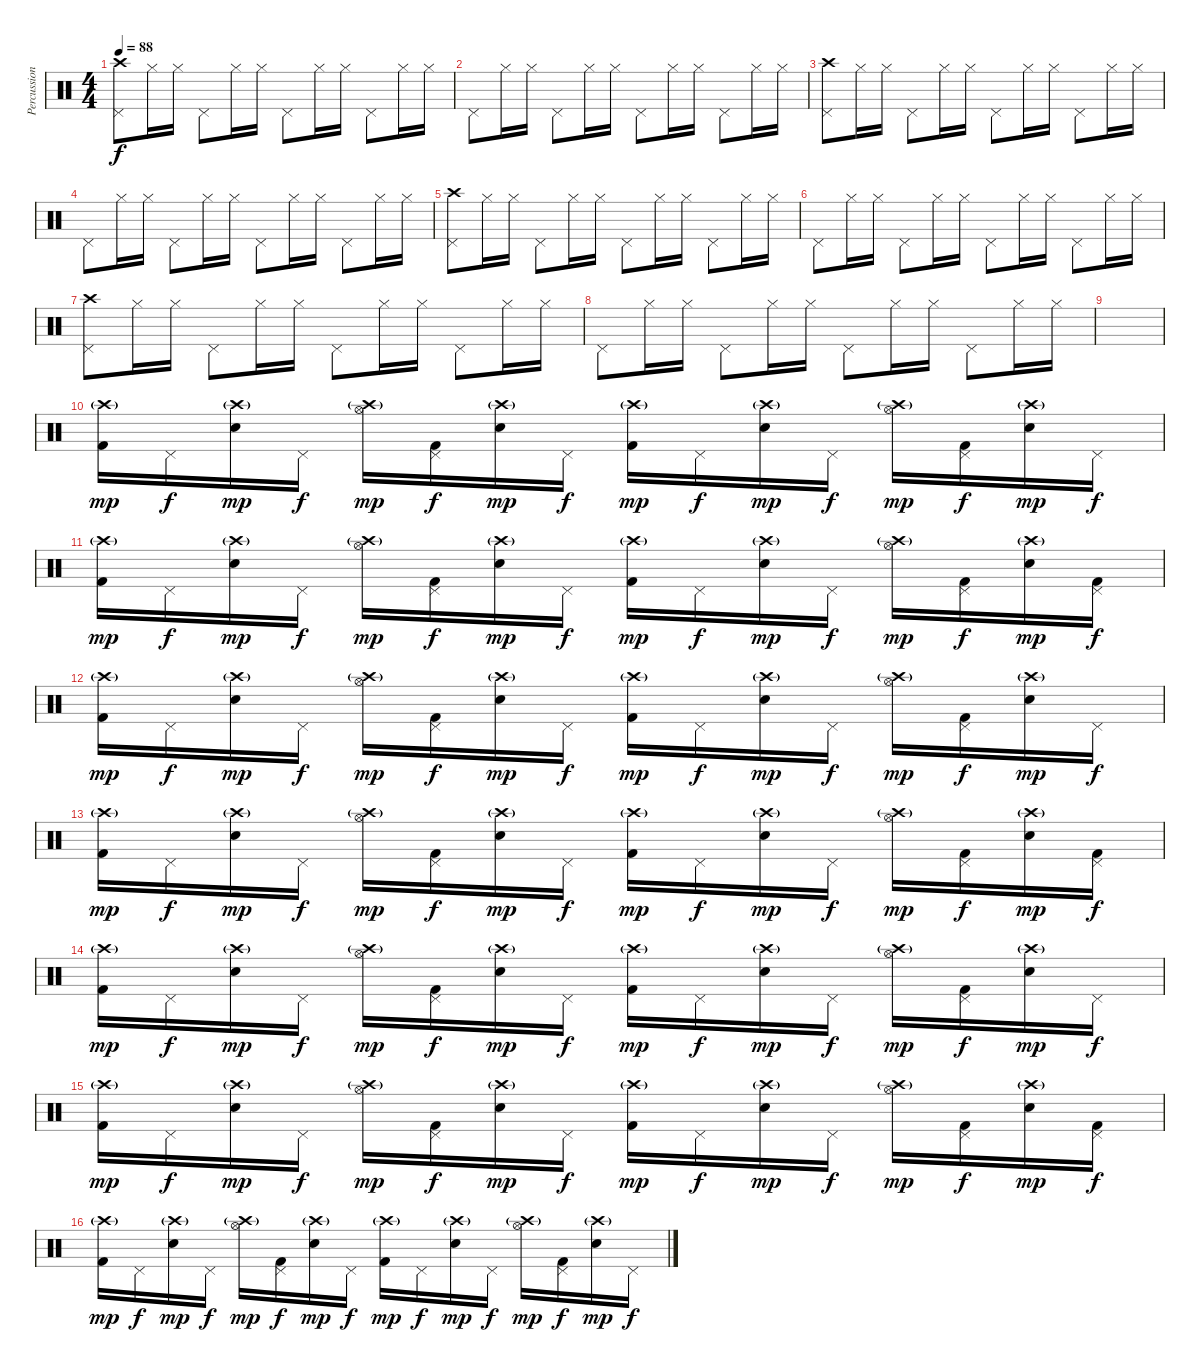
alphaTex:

\track ("Percussion" "Percussion") {instrument percussion}
\staff {score}
\articulation defaults
\ts (4 4)
\tempo 88
\clef neutral
\ks c
("Crash high (hit)" "Pedal Hi-Hat (hit)").8{dy f} "Hi-Hat (closed)".16 "Hi-Hat (closed)".16 "Pedal Hi-Hat (hit)".8 "Hi-Hat (closed)".16 "Hi-Hat (closed)".16 "Pedal Hi-Hat (hit)".8 "Hi-Hat (closed)".16 "Hi-Hat (closed)".16 "Pedal Hi-Hat (hit)".8 "Hi-Hat (closed)".16 "Hi-Hat (closed)".16 |
"Pedal Hi-Hat (hit)".8 "Hi-Hat (closed)".16 "Hi-Hat (closed)".16 "Pedal Hi-Hat (hit)".8 "Hi-Hat (closed)".16 "Hi-Hat (closed)".16 "Pedal Hi-Hat (hit)".8 "Hi-Hat (closed)".16 "Hi-Hat (closed)".16 "Pedal Hi-Hat (hit)".8 "Hi-Hat (closed)".16 "Hi-Hat (closed)".16 |
("Crash high (hit)" "Pedal Hi-Hat (hit)").8 "Hi-Hat (closed)".16 "Hi-Hat (closed)".16 "Pedal Hi-Hat (hit)".8 "Hi-Hat (closed)".16 "Hi-Hat (closed)".16 "Pedal Hi-Hat (hit)".8 "Hi-Hat (closed)".16 "Hi-Hat (closed)".16 "Pedal Hi-Hat (hit)".8 "Hi-Hat (closed)".16 "Hi-Hat (closed)".16 |
"Pedal Hi-Hat (hit)".8 "Hi-Hat (closed)".16 "Hi-Hat (closed)".16 "Pedal Hi-Hat (hit)".8 "Hi-Hat (closed)".16 "Hi-Hat (closed)".16 "Pedal Hi-Hat (hit)".8 "Hi-Hat (closed)".16 "Hi-Hat (closed)".16 "Pedal Hi-Hat (hit)".8 "Hi-Hat (closed)".16 "Hi-Hat (closed)".16 |
("Crash high (hit)" "Pedal Hi-Hat (hit)").8 "Hi-Hat (closed)".16 "Hi-Hat (closed)".16 "Pedal Hi-Hat (hit)".8 "Hi-Hat (closed)".16 "Hi-Hat (closed)".16 "Pedal Hi-Hat (hit)".8 "Hi-Hat (closed)".16 "Hi-Hat (closed)".16 "Pedal Hi-Hat (hit)".8 "Hi-Hat (closed)".16 "Hi-Hat (closed)".16 |
"Pedal Hi-Hat (hit)".8 "Hi-Hat (closed)".16 "Hi-Hat (closed)".16 "Pedal Hi-Hat (hit)".8 "Hi-Hat (closed)".16 "Hi-Hat (closed)".16 "Pedal Hi-Hat (hit)".8 "Hi-Hat (closed)".16 "Hi-Hat (closed)".16 "Pedal Hi-Hat (hit)".8 "Hi-Hat (closed)".16 "Hi-Hat (closed)".16 |
("Crash high (hit)" "Pedal Hi-Hat (hit)").8 "Hi-Hat (closed)".16 "Hi-Hat (closed)".16 "Pedal Hi-Hat (hit)".8 "Hi-Hat (closed)".16 "Hi-Hat (closed)".16 "Pedal Hi-Hat (hit)".8 "Hi-Hat (closed)".16 "Hi-Hat (closed)".16 "Pedal Hi-Hat (hit)".8 "Hi-Hat (closed)".16 "Hi-Hat (closed)".16 |
"Pedal Hi-Hat (hit)".8 "Hi-Hat (closed)".16 "Hi-Hat (closed)".16 "Pedal Hi-Hat (hit)".8 "Hi-Hat (closed)".16 "Hi-Hat (closed)".16 "Pedal Hi-Hat (hit)".8 "Hi-Hat (closed)".16 "Hi-Hat (closed)".16 "Pedal Hi-Hat (hit)".8 "Hi-Hat (closed)".16 "Hi-Hat (closed)".16 |
|
("Crash high (hit)"{g} "Kick (hit) 2").16{dy mp} "Pedal Hi-Hat (hit)".16{dy f} ("Crash high (hit)"{g} "Snare (hit) 2").16{dy mp} "Pedal Hi-Hat (hit)".16{dy f} ("Crash high (hit)"{g} "Hi-Hat (open)").16{dy mp} ("Pedal Hi-Hat (hit)" "Kick (hit) 2").16{dy f} ("Crash high (hit)"{g} "Snare (hit) 2").16{dy mp} "Pedal Hi-Hat (hit)".16{dy f} ("Crash high (hit)"{g} "Kick (hit) 2").16{dy mp} "Pedal Hi-Hat (hit)".16{dy f} ("Crash high (hit)"{g} "Snare (hit) 2").16{dy mp} "Pedal Hi-Hat (hit)".16{dy f} ("Crash high (hit)"{g} "Hi-Hat (open)").16{dy mp} ("Pedal Hi-Hat (hit)" "Kick (hit) 2").16{dy f} ("Crash high (hit)"{g} "Snare (hit) 2").16{dy mp} "Pedal Hi-Hat (hit)".16{dy f} |
("Crash high (hit)"{g} "Kick (hit) 2").16{dy mp} "Pedal Hi-Hat (hit)".16{dy f} ("Crash high (hit)"{g} "Snare (hit) 2").16{dy mp} "Pedal Hi-Hat (hit)".16{dy f} ("Crash high (hit)"{g} "Hi-Hat (open)").16{dy mp} ("Pedal Hi-Hat (hit)" "Kick (hit) 2").16{dy f} ("Crash high (hit)"{g} "Snare (hit) 2").16{dy mp} "Pedal Hi-Hat (hit)".16{dy f} ("Crash high (hit)"{g} "Kick (hit) 2").16{dy mp} "Pedal Hi-Hat (hit)".16{dy f} ("Crash high (hit)"{g} "Snare (hit) 2").16{dy mp} "Pedal Hi-Hat (hit)".16{dy f} ("Crash high (hit)"{g} "Hi-Hat (open)").16{dy mp} ("Pedal Hi-Hat (hit)" "Kick (hit) 2").16{dy f} ("Crash high (hit)"{g} "Snare (hit) 2").16{dy mp} ("Pedal Hi-Hat (hit)" "Kick (hit) 2").16{dy f} |
("Crash high (hit)"{g} "Kick (hit) 2").16{dy mp} "Pedal Hi-Hat (hit)".16{dy f} ("Crash high (hit)"{g} "Snare (hit) 2").16{dy mp} "Pedal Hi-Hat (hit)".16{dy f} ("Crash high (hit)"{g} "Hi-Hat (open)").16{dy mp} ("Pedal Hi-Hat (hit)" "Kick (hit) 2").16{dy f} ("Crash high (hit)"{g} "Snare (hit) 2").16{dy mp} "Pedal Hi-Hat (hit)".16{dy f} ("Crash high (hit)"{g} "Kick (hit) 2").16{dy mp} "Pedal Hi-Hat (hit)".16{dy f} ("Crash high (hit)"{g} "Snare (hit) 2").16{dy mp} "Pedal Hi-Hat (hit)".16{dy f} ("Crash high (hit)"{g} "Hi-Hat (open)").16{dy mp} ("Pedal Hi-Hat (hit)" "Kick (hit) 2").16{dy f} ("Crash high (hit)"{g} "Snare (hit) 2").16{dy mp} "Pedal Hi-Hat (hit)".16{dy f} |
("Crash high (hit)"{g} "Kick (hit) 2").16{dy mp} "Pedal Hi-Hat (hit)".16{dy f} ("Crash high (hit)"{g} "Snare (hit) 2").16{dy mp} "Pedal Hi-Hat (hit)".16{dy f} ("Crash high (hit)"{g} "Hi-Hat (open)").16{dy mp} ("Pedal Hi-Hat (hit)" "Kick (hit) 2").16{dy f} ("Crash high (hit)"{g} "Snare (hit) 2").16{dy mp} "Pedal Hi-Hat (hit)".16{dy f} ("Crash high (hit)"{g} "Kick (hit) 2").16{dy mp} "Pedal Hi-Hat (hit)".16{dy f} ("Crash high (hit)"{g} "Snare (hit) 2").16{dy mp} "Pedal Hi-Hat (hit)".16{dy f} ("Crash high (hit)"{g} "Hi-Hat (open)").16{dy mp} ("Pedal Hi-Hat (hit)" "Kick (hit) 2").16{dy f} ("Crash high (hit)"{g} "Snare (hit) 2").16{dy mp} ("Pedal Hi-Hat (hit)" "Kick (hit) 2").16{dy f} |
("Crash high (hit)"{g} "Kick (hit) 2").16{dy mp} "Pedal Hi-Hat (hit)".16{dy f} ("Crash high (hit)"{g} "Snare (hit) 2").16{dy mp} "Pedal Hi-Hat (hit)".16{dy f} ("Crash high (hit)"{g} "Hi-Hat (open)").16{dy mp} ("Pedal Hi-Hat (hit)" "Kick (hit) 2").16{dy f} ("Crash high (hit)"{g} "Snare (hit) 2").16{dy mp} "Pedal Hi-Hat (hit)".16{dy f} ("Crash high (hit)"{g} "Kick (hit) 2").16{dy mp} "Pedal Hi-Hat (hit)".16{dy f} ("Crash high (hit)"{g} "Snare (hit) 2").16{dy mp} "Pedal Hi-Hat (hit)".16{dy f} ("Crash high (hit)"{g} "Hi-Hat (open)").16{dy mp} ("Pedal Hi-Hat (hit)" "Kick (hit) 2").16{dy f} ("Crash high (hit)"{g} "Snare (hit) 2").16{dy mp} "Pedal Hi-Hat (hit)".16{dy f} |
("Crash high (hit)"{g} "Kick (hit) 2").16{dy mp} "Pedal Hi-Hat (hit)".16{dy f} ("Crash high (hit)"{g} "Snare (hit) 2").16{dy mp} "Pedal Hi-Hat (hit)".16{dy f} ("Crash high (hit)"{g} "Hi-Hat (open)").16{dy mp} ("Pedal Hi-Hat (hit)" "Kick (hit) 2").16{dy f} ("Crash high (hit)"{g} "Snare (hit) 2").16{dy mp} "Pedal Hi-Hat (hit)".16{dy f} ("Crash high (hit)"{g} "Kick (hit) 2").16{dy mp} "Pedal Hi-Hat (hit)".16{dy f} ("Crash high (hit)"{g} "Snare (hit) 2").16{dy mp} "Pedal Hi-Hat (hit)".16{dy f} ("Crash high (hit)"{g} "Hi-Hat (open)").16{dy mp} ("Pedal Hi-Hat (hit)" "Kick (hit) 2").16{dy f} ("Crash high (hit)"{g} "Snare (hit) 2").16{dy mp} ("Pedal Hi-Hat (hit)" "Kick (hit) 2").16{dy f} |
("Crash high (hit)"{g} "Kick (hit) 2").16{dy mp} "Pedal Hi-Hat (hit)".16{dy f} ("Crash high (hit)"{g} "Snare (hit) 2").16{dy mp} "Pedal Hi-Hat (hit)".16{dy f} ("Crash high (hit)"{g} "Hi-Hat (open)").16{dy mp} ("Pedal Hi-Hat (hit)" "Kick (hit) 2").16{dy f} ("Crash high (hit)"{g} "Snare (hit) 2").16{dy mp} "Pedal Hi-Hat (hit)".16{dy f} ("Crash high (hit)"{g} "Kick (hit) 2").16{dy mp} "Pedal Hi-Hat (hit)".16{dy f} ("Crash high (hit)"{g} "Snare (hit) 2").16{dy mp} "Pedal Hi-Hat (hit)".16{dy f} ("Crash high (hit)"{g} "Hi-Hat (open)").16{dy mp} ("Pedal Hi-Hat (hit)" "Kick (hit) 2").16{dy f} ("Crash high (hit)"{g} "Snare (hit) 2").16{dy mp} "Pedal Hi-Hat (hit)".16{dy f}
